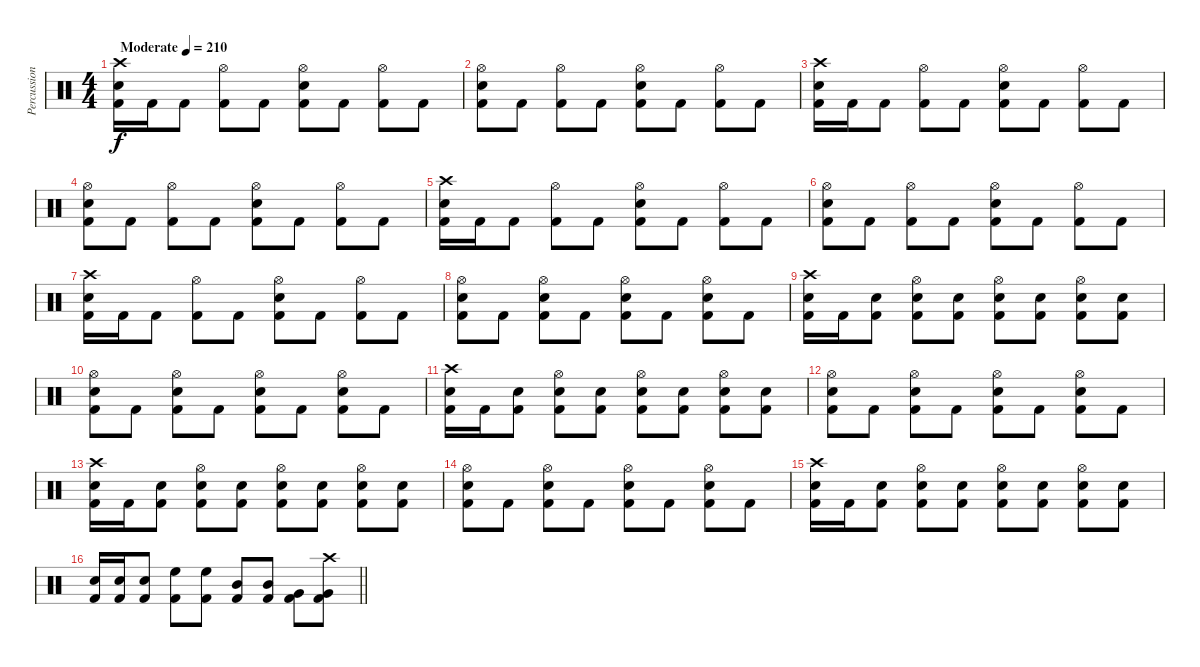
\track ("Percussion" "Percussion") {instrument percussion}
\staff {score}
\articulation defaults
\ts (4 4)
\tempo (210 "Moderate")
\clef neutral
\ks c
("Crash high (hit)" "Snare (hit) 2" "Kick (hit) 2").16{dy f} "Kick (hit) 2".16 "Kick (hit) 2".8 ("Hi-Hat (open)" "Kick (hit) 2").8 "Kick (hit) 2".8 ("Hi-Hat (open)" "Snare (hit) 2" "Kick (hit) 2").8 "Kick (hit) 2".8 ("Hi-Hat (open)" "Kick (hit) 2").8 "Kick (hit) 2".8 |
("Hi-Hat (open)" "Snare (hit) 2" "Kick (hit) 2").8 "Kick (hit) 2".8 ("Hi-Hat (open)" "Kick (hit) 2").8 "Kick (hit) 2".8 ("Hi-Hat (open)" "Snare (hit) 2" "Kick (hit) 2").8 "Kick (hit) 2".8 ("Hi-Hat (open)" "Kick (hit) 2").8 "Kick (hit) 2".8 |
("Crash high (hit)" "Snare (hit) 2" "Kick (hit) 2").16 "Kick (hit) 2".16 "Kick (hit) 2".8 ("Hi-Hat (open)" "Kick (hit) 2").8 "Kick (hit) 2".8 ("Hi-Hat (open)" "Snare (hit) 2" "Kick (hit) 2").8 "Kick (hit) 2".8 ("Hi-Hat (open)" "Kick (hit) 2").8 "Kick (hit) 2".8 |
("Hi-Hat (open)" "Snare (hit) 2" "Kick (hit) 2").8 "Kick (hit) 2".8 ("Hi-Hat (open)" "Kick (hit) 2").8 "Kick (hit) 2".8 ("Hi-Hat (open)" "Snare (hit) 2" "Kick (hit) 2").8 "Kick (hit) 2".8 ("Hi-Hat (open)" "Kick (hit) 2").8 "Kick (hit) 2".8 |
("Crash high (hit)" "Snare (hit) 2" "Kick (hit) 2").16 "Kick (hit) 2".16 "Kick (hit) 2".8 ("Hi-Hat (open)" "Kick (hit) 2").8 "Kick (hit) 2".8 ("Hi-Hat (open)" "Snare (hit) 2" "Kick (hit) 2").8 "Kick (hit) 2".8 ("Hi-Hat (open)" "Kick (hit) 2").8 "Kick (hit) 2".8 |
("Hi-Hat (open)" "Snare (hit) 2" "Kick (hit) 2").8 "Kick (hit) 2".8 ("Hi-Hat (open)" "Kick (hit) 2").8 "Kick (hit) 2".8 ("Hi-Hat (open)" "Snare (hit) 2" "Kick (hit) 2").8 "Kick (hit) 2".8 ("Hi-Hat (open)" "Kick (hit) 2").8 "Kick (hit) 2".8 |
("Crash high (hit)" "Snare (hit) 2" "Kick (hit) 2").16 "Kick (hit) 2".16 "Kick (hit) 2".8 ("Hi-Hat (open)" "Kick (hit) 2").8 "Kick (hit) 2".8 ("Hi-Hat (open)" "Snare (hit) 2" "Kick (hit) 2").8 "Kick (hit) 2".8 ("Hi-Hat (open)" "Kick (hit) 2").8 "Kick (hit) 2".8 |
("Hi-Hat (open)" "Snare (hit) 2" "Kick (hit) 2").8 "Kick (hit) 2".8 ("Hi-Hat (open)" "Snare (hit) 2" "Kick (hit) 2").8 "Kick (hit) 2".8 ("Hi-Hat (open)" "Snare (hit) 2" "Kick (hit) 2").8 "Kick (hit) 2".8 ("Hi-Hat (open)" "Snare (hit) 2" "Kick (hit) 2").8 "Kick (hit) 2".8 |
("Crash high (hit)" "Snare (hit) 2" "Kick (hit) 2").16 "Kick (hit) 2".16 ("Snare (hit) 2" "Kick (hit) 2").8 ("Hi-Hat (open)" "Snare (hit) 2" "Kick (hit) 2").8 ("Snare (hit) 2" "Kick (hit) 2").8 ("Hi-Hat (open)" "Snare (hit) 2" "Kick (hit) 2").8 ("Snare (hit) 2" "Kick (hit) 2").8 ("Hi-Hat (open)" "Snare (hit) 2" "Kick (hit) 2").8 ("Snare (hit) 2" "Kick (hit) 2").8 |
("Hi-Hat (open)" "Snare (hit) 2" "Kick (hit) 2").8 "Kick (hit) 2".8 ("Hi-Hat (open)" "Snare (hit) 2" "Kick (hit) 2").8 "Kick (hit) 2".8 ("Hi-Hat (open)" "Snare (hit) 2" "Kick (hit) 2").8 "Kick (hit) 2".8 ("Hi-Hat (open)" "Snare (hit) 2" "Kick (hit) 2").8 "Kick (hit) 2".8 |
("Crash high (hit)" "Snare (hit) 2" "Kick (hit) 2").16 "Kick (hit) 2".16 ("Snare (hit) 2" "Kick (hit) 2").8 ("Hi-Hat (open)" "Snare (hit) 2" "Kick (hit) 2").8 ("Snare (hit) 2" "Kick (hit) 2").8 ("Hi-Hat (open)" "Snare (hit) 2" "Kick (hit) 2").8 ("Snare (hit) 2" "Kick (hit) 2").8 ("Hi-Hat (open)" "Snare (hit) 2" "Kick (hit) 2").8 ("Snare (hit) 2" "Kick (hit) 2").8 |
("Hi-Hat (open)" "Snare (hit) 2" "Kick (hit) 2").8 "Kick (hit) 2".8 ("Hi-Hat (open)" "Snare (hit) 2" "Kick (hit) 2").8 "Kick (hit) 2".8 ("Hi-Hat (open)" "Snare (hit) 2" "Kick (hit) 2").8 "Kick (hit) 2".8 ("Hi-Hat (open)" "Snare (hit) 2" "Kick (hit) 2").8 "Kick (hit) 2".8 |
("Crash high (hit)" "Snare (hit) 2" "Kick (hit) 2").16 "Kick (hit) 2".16 ("Snare (hit) 2" "Kick (hit) 2").8 ("Hi-Hat (open)" "Snare (hit) 2" "Kick (hit) 2").8 ("Snare (hit) 2" "Kick (hit) 2").8 ("Hi-Hat (open)" "Snare (hit) 2" "Kick (hit) 2").8 ("Snare (hit) 2" "Kick (hit) 2").8 ("Hi-Hat (open)" "Snare (hit) 2" "Kick (hit) 2").8 ("Snare (hit) 2" "Kick (hit) 2").8 |
("Hi-Hat (open)" "Snare (hit) 2" "Kick (hit) 2").8 "Kick (hit) 2".8 ("Hi-Hat (open)" "Snare (hit) 2" "Kick (hit) 2").8 "Kick (hit) 2".8 ("Hi-Hat (open)" "Snare (hit) 2" "Kick (hit) 2").8 "Kick (hit) 2".8 ("Hi-Hat (open)" "Snare (hit) 2" "Kick (hit) 2").8 "Kick (hit) 2".8 |
("Crash high (hit)" "Snare (hit) 2" "Kick (hit) 2").16 "Kick (hit) 2".16 ("Snare (hit) 2" "Kick (hit) 2").8 ("Hi-Hat (open)" "Snare (hit) 2" "Kick (hit) 2").8 ("Snare (hit) 2" "Kick (hit) 2").8 ("Hi-Hat (open)" "Snare (hit) 2" "Kick (hit) 2").8 ("Snare (hit) 2" "Kick (hit) 2").8 ("Hi-Hat (open)" "Snare (hit) 2" "Kick (hit) 2").8 ("Snare (hit) 2" "Kick (hit) 2").8 |
\barLineRight lightlight
("Snare (hit) 2" "Kick (hit) 2").16 ("Snare (hit) 2" "Kick (hit) 2").16 ("Snare (hit) 2" "Kick (hit) 2").8 ("High Floor Tom (hit)" "Kick (hit) 2").8 ("High Floor Tom (hit)" "Kick (hit) 2").8 ("Mid Tom (hit)" "Kick (hit) 2").8 ("Mid Tom (hit)" "Kick (hit) 2").8 ("Very Low Tom (hit)" "Kick (hit) 2").8 ("Crash high (hit)" "Very Low Tom (hit)" "Kick (hit) 2").8
